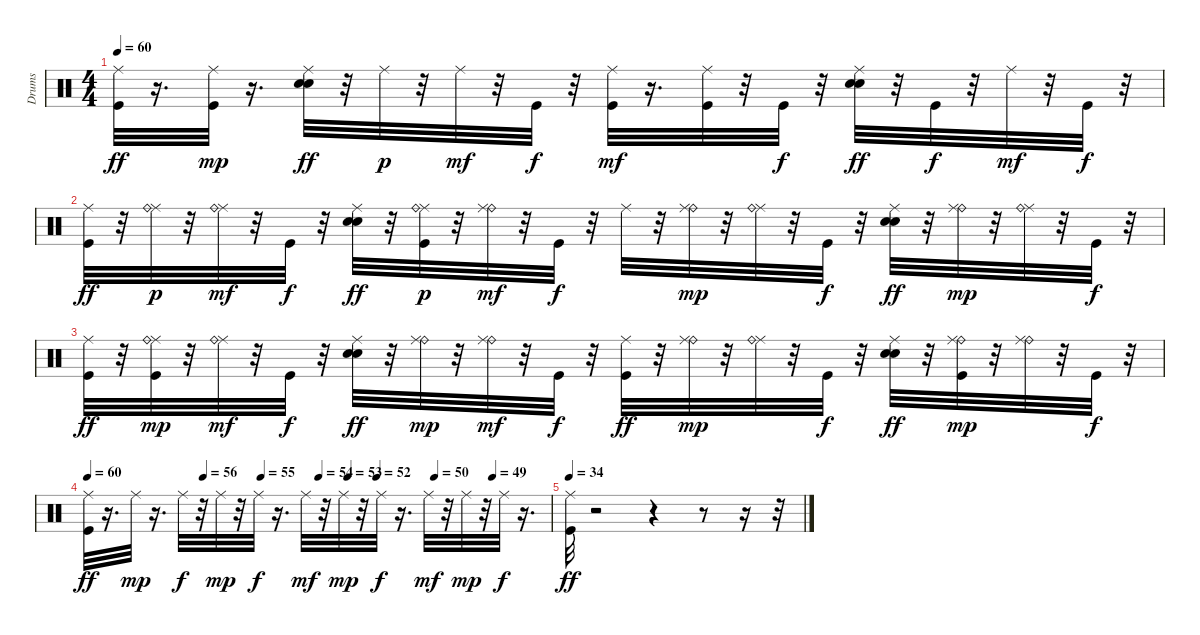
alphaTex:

\track ("Drums" "Drums") {instrument percussion}
\staff {score}
\articulation defaults
\ts (4 4)
\tempo 60
\clef neutral
\ks c
("Ride (middle)" "Kick (hit)").32{dy ff} r.16{d} ("Ride (middle)" "Kick (hit)").32{dy mp} r.16{d} ("Ride (middle)" "Snare (hit) 2" "Electric Snare (hit)").32{dy ff} r.32 "Ride (middle)".32{dy p} r.32 "Ride (middle)".32{dy mf} r.32 "Kick (hit)".32{dy f} r.32 ("Ride (middle)" "Kick (hit)").32{dy mf} r.16{d} ("Ride (middle)" "Kick (hit)").32 r.32 "Kick (hit)".32{dy f} r.32 ("Snare (hit) 2" "Electric Snare (hit)" "Ride (middle)").32{dy ff} r.32 "Kick (hit)".32{dy f} r.32 "Ride (middle)".32{dy mf} r.32 "Kick (hit)".32{dy f} r.32 |
("Kick (hit)" "Ride (middle)").32{dy ff} r.32 ("Ride (middle)" "Ride (bell)").32{dy p} r.32 ("Ride (middle)" "Ride (bell)").32{dy mf} r.32 "Kick (hit)".32{dy f} r.32 ("Snare (hit) 2" "Electric Snare (hit)" "Ride (middle)").32{dy ff} r.32 ("Kick (hit)" "Ride (middle)" "Ride (bell)").32{dy p} r.32 ("Ride (bell)" "Ride (middle)").32{dy mf} r.32 "Kick (hit)".32{dy f} r.32 "Ride (middle)".32 r.32 ("Ride (bell)" "Ride (middle)").32{dy mp} r.32 ("Ride (middle)" "Ride (bell)").32 r.32 "Kick (hit)".32{dy f} r.32 ("Ride (middle)" "Snare (hit) 2" "Electric Snare (hit)").32{dy ff} r.32 ("Ride (bell)" "Ride (middle)").32{dy mp} r.32 ("Ride (middle)" "Ride (bell)").32 r.32 "Kick (hit)".32{dy f} r.32 |
("Kick (hit)" "Ride (middle)").32{dy ff} r.32 ("Ride (middle)" "Ride (bell)" "Kick (hit)").32{dy mp} r.32 ("Ride (middle)" "Ride (bell)").32{dy mf} r.32 "Kick (hit)".32{dy f} r.32 ("Snare (hit) 2" "Ride (middle)" "Electric Snare (hit)").32{dy ff} r.32 ("Ride (bell)" "Ride (middle)").32{dy mp} r.32 ("Ride (bell)" "Ride (middle)").32{dy mf} r.32 "Kick (hit)".32{dy f} r.32 ("Ride (middle)" "Kick (hit)").32{dy ff} r.32 ("Ride (bell)" "Ride (middle)").32{dy mp} r.32 ("Ride (middle)" "Ride (bell)").32 r.32 "Kick (hit)".32{dy f} r.32 ("Ride (middle)" "Snare (hit) 2" "Electric Snare (hit)").32{dy ff} r.32 ("Ride (bell)" "Ride (middle)" "Kick (hit)").32{dy mp} r.32 ("Ride (bell)" "Ride (middle)").32 r.32 "Kick (hit)".32{dy f} r.32 |
\tempo 60
\tempo (56 0.25)
\tempo (55 0.375)
\tempo (54 0.5)
\tempo (53 0.5625)
\tempo (52 0.625)
\tempo (50 0.75)
\tempo (49 0.875)
("Ride (middle)" "Kick (hit)").32{dy ff} r.16{d} "Ride (middle)".32{dy mp} r.16{d} "Ride (middle)".32{dy f} r.32 "Ride (middle)".32{dy mp} r.32 "Ride (middle)".32{dy f} r.16{d} "Ride (middle)".32{dy mf} r.32 "Ride (middle)".32{dy mp} r.32 "Ride (middle)".32{dy f} r.16{d} "Ride (middle)".32{dy mf} r.32 "Ride (middle)".32{dy mp} r.32 "Ride (middle)".32{dy f} r.16{d} |
\tempo 34
("Ride (middle)" "Kick (hit)").32{dy ff} r.2 r.4 r.8 r.16 r.32
